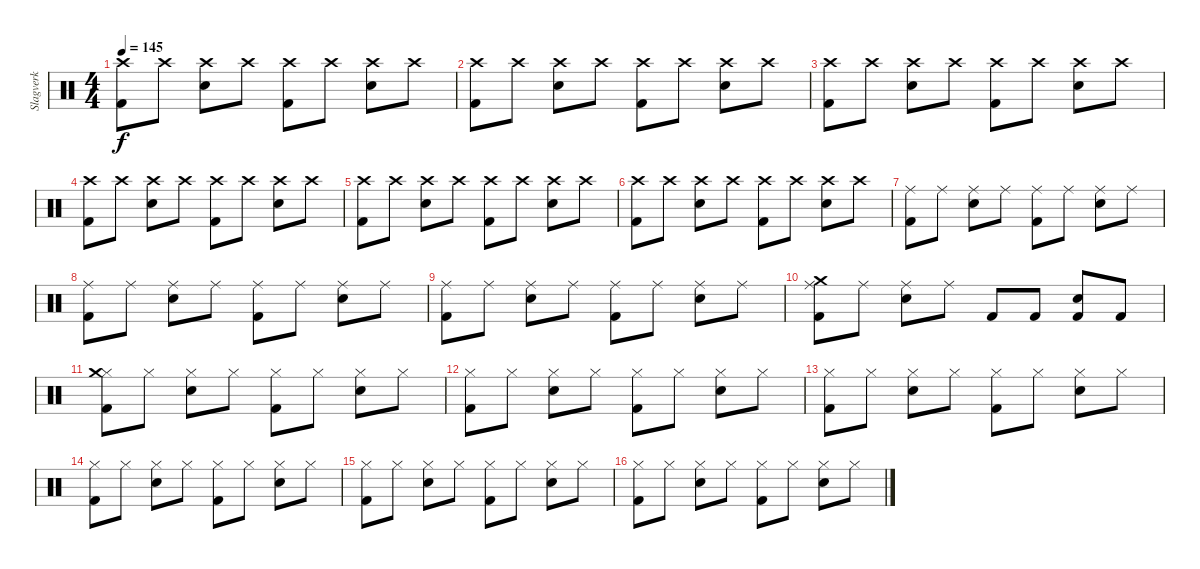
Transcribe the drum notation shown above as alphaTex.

\track ("Slagverk" "Slagverk") {instrument percussion}
\staff {score}
\articulation defaults
\ts (4 4)
\tempo 145
\clef neutral
\ks c
("Crash high (hit)" "Kick (hit) 2").8{dy f} "Crash high (hit)".8 ("Crash high (hit)" "Snare (hit) 2").8 "Crash high (hit)".8 ("Crash high (hit)" "Kick (hit) 2").8 "Crash high (hit)".8 ("Crash high (hit)" "Snare (hit) 2").8 "Crash high (hit)".8 |
("Crash high (hit)" "Kick (hit) 2").8 "Crash high (hit)".8 ("Crash high (hit)" "Snare (hit) 2").8 "Crash high (hit)".8 ("Crash high (hit)" "Kick (hit) 2").8 "Crash high (hit)".8 ("Crash high (hit)" "Snare (hit) 2").8 "Crash high (hit)".8 |
("Crash high (hit)" "Kick (hit) 2").8 "Crash high (hit)".8 ("Crash high (hit)" "Snare (hit) 2").8 "Crash high (hit)".8 ("Crash high (hit)" "Kick (hit) 2").8 "Crash high (hit)".8 ("Crash high (hit)" "Snare (hit) 2").8 "Crash high (hit)".8 |
("Crash high (hit)" "Kick (hit) 2").8 "Crash high (hit)".8 ("Crash high (hit)" "Snare (hit) 2").8 "Crash high (hit)".8 ("Crash high (hit)" "Kick (hit) 2").8 "Crash high (hit)".8 ("Crash high (hit)" "Snare (hit) 2").8 "Crash high (hit)".8 |
("Crash high (hit)" "Kick (hit) 2").8 "Crash high (hit)".8 ("Crash high (hit)" "Snare (hit) 2").8 "Crash high (hit)".8 ("Crash high (hit)" "Kick (hit) 2").8 "Crash high (hit)".8 ("Crash high (hit)" "Snare (hit) 2").8 "Crash high (hit)".8 |
("Crash high (hit)" "Kick (hit) 2").8 "Crash high (hit)".8 ("Crash high (hit)" "Snare (hit) 2").8 "Crash high (hit)".8 ("Crash high (hit)" "Kick (hit) 2").8 "Crash high (hit)".8 ("Crash high (hit)" "Snare (hit) 2").8 "Crash high (hit)".8 |
("Ride (middle)" "Kick (hit) 2").8 "Ride (middle)".8 ("Ride (middle)" "Snare (hit) 2").8 "Ride (middle)".8 ("Ride (middle)" "Kick (hit) 2").8 "Ride (middle)".8 ("Ride (middle)" "Snare (hit) 2").8 "Ride (middle)".8 |
("Ride (middle)" "Kick (hit) 2").8 "Ride (middle)".8 ("Ride (middle)" "Snare (hit) 2").8 "Ride (middle)".8 ("Ride (middle)" "Kick (hit) 2").8 "Ride (middle)".8 ("Ride (middle)" "Snare (hit) 2").8 "Ride (middle)".8 |
("Ride (middle)" "Kick (hit) 2").8 "Ride (middle)".8 ("Ride (middle)" "Snare (hit) 2").8 "Ride (middle)".8 ("Ride (middle)" "Kick (hit) 2").8 "Ride (middle)".8 ("Ride (middle)" "Snare (hit) 2").8 "Ride (middle)".8 |
("Ride (middle)" "Crash medium (hit)" "Kick (hit) 2").8 "Ride (middle)".8 ("Ride (middle)" "Snare (hit) 2").8 "Ride (middle)".8 "Kick (hit) 2".8 "Kick (hit) 2".8 ("Snare (hit) 2" "Kick (hit) 2").8 "Kick (hit) 2".8 |
("Hi-Hat (closed)" "Crash medium (hit)" "Kick (hit) 2").8 "Hi-Hat (closed)".8 ("Hi-Hat (closed)" "Snare (hit) 2").8 "Hi-Hat (closed)".8 ("Hi-Hat (closed)" "Kick (hit) 2").8 "Hi-Hat (closed)".8 ("Hi-Hat (closed)" "Snare (hit) 2").8 "Hi-Hat (closed)".8 |
("Hi-Hat (closed)" "Kick (hit) 2").8 "Hi-Hat (closed)".8 ("Hi-Hat (closed)" "Snare (hit) 2").8 "Hi-Hat (closed)".8 ("Hi-Hat (closed)" "Kick (hit) 2").8 "Hi-Hat (closed)".8 ("Hi-Hat (closed)" "Snare (hit) 2").8 "Hi-Hat (closed)".8 |
("Hi-Hat (closed)" "Kick (hit) 2").8 "Hi-Hat (closed)".8 ("Hi-Hat (closed)" "Snare (hit) 2").8 "Hi-Hat (closed)".8 ("Hi-Hat (closed)" "Kick (hit) 2").8 "Hi-Hat (closed)".8 ("Hi-Hat (closed)" "Snare (hit) 2").8 "Hi-Hat (closed)".8 |
("Hi-Hat (closed)" "Kick (hit) 2").8 "Hi-Hat (closed)".8 ("Hi-Hat (closed)" "Snare (hit) 2").8 "Hi-Hat (closed)".8 ("Hi-Hat (closed)" "Kick (hit) 2").8 "Hi-Hat (closed)".8 ("Hi-Hat (closed)" "Snare (hit) 2").8 "Hi-Hat (closed)".8 |
("Hi-Hat (closed)" "Kick (hit) 2").8 "Hi-Hat (closed)".8 ("Hi-Hat (closed)" "Snare (hit) 2").8 "Hi-Hat (closed)".8 ("Hi-Hat (closed)" "Kick (hit) 2").8 "Hi-Hat (closed)".8 ("Hi-Hat (closed)" "Snare (hit) 2").8 "Hi-Hat (closed)".8 |
("Hi-Hat (closed)" "Kick (hit) 2").8 "Hi-Hat (closed)".8 ("Hi-Hat (closed)" "Snare (hit) 2").8 "Hi-Hat (closed)".8 ("Hi-Hat (closed)" "Kick (hit) 2").8 "Hi-Hat (closed)".8 ("Hi-Hat (closed)" "Snare (hit) 2").8 "Hi-Hat (closed)".8
